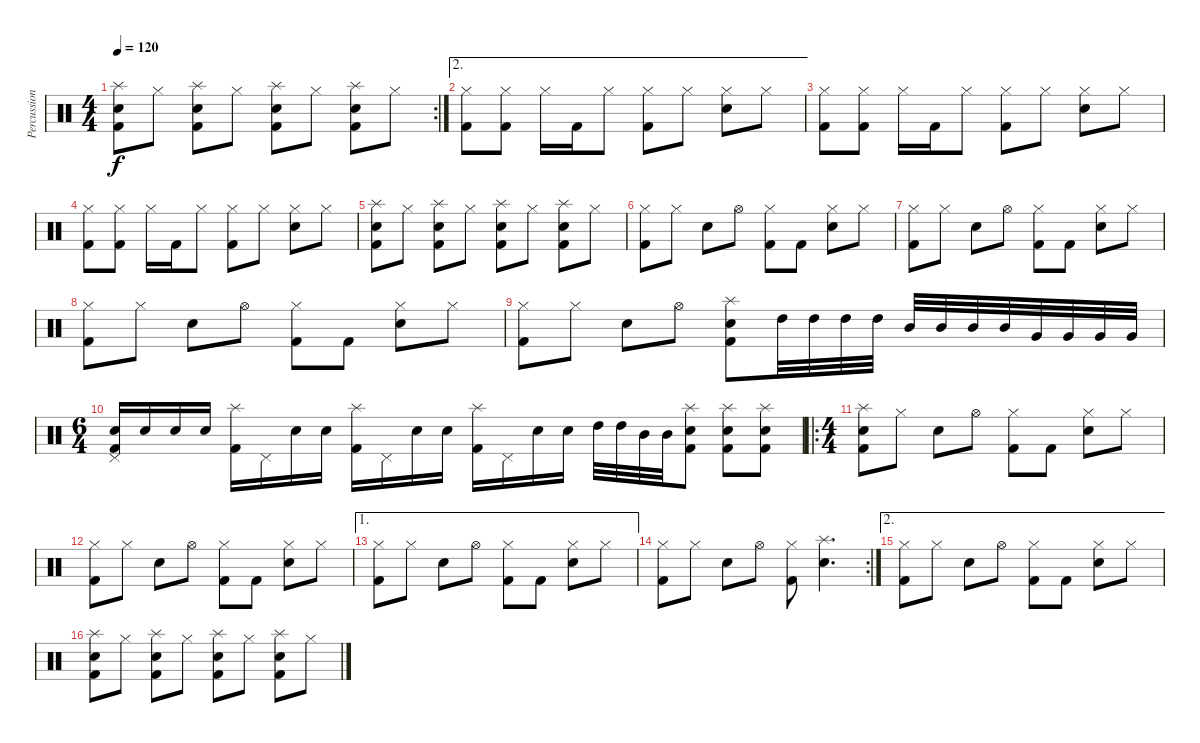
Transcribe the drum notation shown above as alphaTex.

\track ("Percussion" "Percussion") {instrument percussion}
\staff {score}
\articulation defaults
\rc 2
\ts (4 4)
\tempo 120
\clef neutral
\ks c
("Splash (hit)" "Snare (hit) 2" "Kick (hit) 2").8{dy f} "Hi-Hat (closed)".8 ("Splash (hit)" "Snare (hit) 2" "Kick (hit) 2").8 "Hi-Hat (closed)".8 ("Splash (hit)" "Snare (hit) 2" "Kick (hit) 2").8 "Hi-Hat (closed)".8 ("Splash (hit)" "Snare (hit) 2" "Kick (hit) 2").8 "Hi-Hat (closed)".8 |
\ae 2
("Hi-Hat (closed)" "Kick (hit) 2").8 ("Hi-Hat (closed)" "Kick (hit) 2").8 "Hi-Hat (closed)".16 "Kick (hit) 2".16 "Hi-Hat (closed)".8 ("Hi-Hat (closed)" "Kick (hit) 2").8 "Hi-Hat (closed)".8 ("Hi-Hat (closed)" "Snare (hit) 2").8 "Hi-Hat (closed)".8 |
("Hi-Hat (closed)" "Kick (hit) 2").8 ("Hi-Hat (closed)" "Kick (hit) 2").8 "Hi-Hat (closed)".16 "Kick (hit) 2".16 "Hi-Hat (closed)".8 ("Hi-Hat (closed)" "Kick (hit) 2").8 "Hi-Hat (closed)".8 ("Hi-Hat (closed)" "Snare (hit) 2").8 "Hi-Hat (closed)".8 |
("Hi-Hat (closed)" "Kick (hit) 2").8 ("Hi-Hat (closed)" "Kick (hit) 2").8 "Hi-Hat (closed)".16 "Kick (hit) 2".16 "Hi-Hat (closed)".8 ("Hi-Hat (closed)" "Kick (hit) 2").8 "Hi-Hat (closed)".8 ("Hi-Hat (closed)" "Snare (hit) 2").8 "Hi-Hat (closed)".8 |
("Splash (hit)" "Snare (hit) 2" "Kick (hit) 2").8 "Hi-Hat (closed)".8 ("Splash (hit)" "Snare (hit) 2" "Kick (hit) 2").8 "Hi-Hat (closed)".8 ("Splash (hit)" "Snare (hit) 2" "Kick (hit) 2").8 "Hi-Hat (closed)".8 ("Splash (hit)" "Snare (hit) 2" "Kick (hit) 2").8 "Hi-Hat (closed)".8 |
("Hi-Hat (closed)" "Kick (hit) 2").8 "Hi-Hat (closed)".8 "Snare (hit) 2".8 "Hi-Hat (open)".8 ("Hi-Hat (closed)" "Kick (hit) 2").8 "Kick (hit) 2".8 ("Hi-Hat (closed)" "Snare (hit) 2").8 "Hi-Hat (closed)".8 |
("Hi-Hat (closed)" "Kick (hit) 2").8 "Hi-Hat (closed)".8 "Snare (hit) 2".8 "Hi-Hat (open)".8 ("Hi-Hat (closed)" "Kick (hit) 2").8 "Kick (hit) 2".8 ("Hi-Hat (closed)" "Snare (hit) 2").8 "Hi-Hat (closed)".8 |
("Hi-Hat (closed)" "Kick (hit) 2").8 "Hi-Hat (closed)".8 "Snare (hit) 2".8 "Hi-Hat (open)".8 ("Hi-Hat (closed)" "Kick (hit) 2").8 "Kick (hit) 2".8 ("Hi-Hat (closed)" "Snare (hit) 2").8 "Hi-Hat (closed)".8 |
("Hi-Hat (closed)" "Kick (hit) 2").8 "Hi-Hat (closed)".8 "Snare (hit) 2".8 "Hi-Hat (open)".8 ("Splash (hit)" "Snare (hit) 2" "Kick (hit) 2").8 "High Tom (hit)".32 "High Tom (hit)".32 "High Tom (hit)".32 "High Tom (hit)".32 "Mid Tom (hit)".32 "Mid Tom (hit)".32 "Mid Tom (hit)".32 "Mid Tom (hit)".32 "Very Low Tom (hit)".32 "Very Low Tom (hit)".32 "Very Low Tom (hit)".32 "Very Low Tom (hit)".32 |
\ts (6 4)
("Pedal Hi-Hat (hit)" "Snare (hit) 2" "Kick (hit) 2").16 "Snare (hit) 2".16 "Snare (hit) 2".16 "Snare (hit) 2".16 ("Splash (hit)" "Kick (hit) 2").16 "Pedal Hi-Hat (hit)".16 "Snare (hit) 2".16 "Snare (hit) 2".16 ("Splash (hit)" "Kick (hit) 2").16 "Pedal Hi-Hat (hit)".16 "Snare (hit) 2".16 "Snare (hit) 2".16 ("Splash (hit)" "Kick (hit) 2").16 "Pedal Hi-Hat (hit)".16 "Snare (hit) 2".16 "Snare (hit) 2".16 "High Tom (hit)".32 "High Tom (hit)".32 "Mid Tom (hit)".32 "Mid Tom (hit)".32 ("Splash (hit)" "Snare (hit) 2" "Kick (hit) 2").8 ("Splash (hit)" "Snare (hit) 2" "Kick (hit) 2").8 ("Splash (hit)" "Snare (hit) 2" "Kick (hit) 2").8 |
\ro
\ts (4 4)
("Splash (hit)" "Snare (hit) 2" "Kick (hit) 2").8 "Hi-Hat (closed)".8 "Snare (hit) 2".8 "Hi-Hat (open)".8 ("Hi-Hat (closed)" "Kick (hit) 2").8 "Kick (hit) 2".8 ("Hi-Hat (closed)" "Snare (hit) 2").8 "Hi-Hat (closed)".8 |
("Hi-Hat (closed)" "Kick (hit) 2").8 "Hi-Hat (closed)".8 "Snare (hit) 2".8 "Hi-Hat (open)".8 ("Hi-Hat (closed)" "Kick (hit) 2").8 "Kick (hit) 2".8 ("Hi-Hat (closed)" "Snare (hit) 2").8 "Hi-Hat (closed)".8 |
\ae 1
("Hi-Hat (closed)" "Kick (hit) 2").8 "Hi-Hat (closed)".8 "Snare (hit) 2".8 "Hi-Hat (open)".8 ("Hi-Hat (closed)" "Kick (hit) 2").8 "Kick (hit) 2".8 ("Hi-Hat (closed)" "Snare (hit) 2").8 "Hi-Hat (closed)".8 |
\rc 2
("Hi-Hat (closed)" "Kick (hit) 2").8 "Hi-Hat (closed)".8 "Snare (hit) 2".8 "Hi-Hat (open)".8 ("Hi-Hat (closed)" "Kick (hit) 2").8 ("Splash (hit)" "Snare (hit) 2").4{d} |
\ae 2
("Hi-Hat (closed)" "Kick (hit) 2").8 "Hi-Hat (closed)".8 "Snare (hit) 2".8 "Hi-Hat (open)".8 ("Hi-Hat (closed)" "Kick (hit) 2").8 "Kick (hit) 2".8 ("Hi-Hat (closed)" "Snare (hit) 2").8 "Hi-Hat (closed)".8 |
("Splash (hit)" "Snare (hit) 2" "Kick (hit) 2").8 "Hi-Hat (closed)".8 ("Splash (hit)" "Snare (hit) 2" "Kick (hit) 2").8 "Hi-Hat (closed)".8 ("Splash (hit)" "Snare (hit) 2" "Kick (hit) 2").8 "Hi-Hat (closed)".8 ("Splash (hit)" "Snare (hit) 2" "Kick (hit) 2").8 "Hi-Hat (closed)".8
